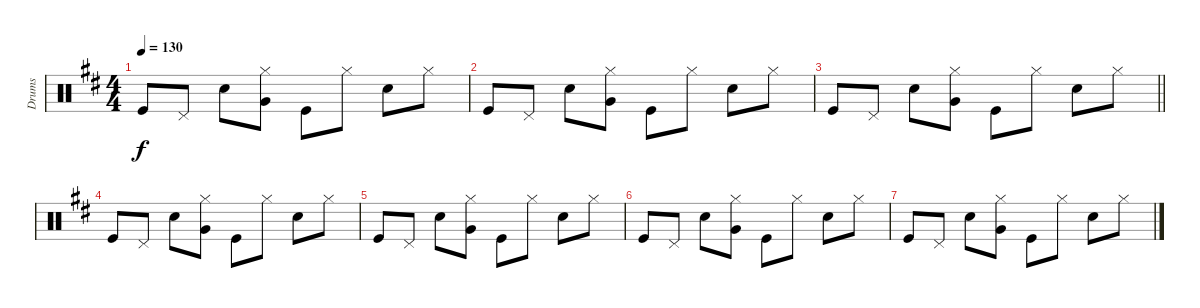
\track ("Drums" "Drums") {instrument percussion}
\staff {score}
\articulation defaults
\ts (4 4)
\tempo 130
\clef neutral
\ks d "Kick (hit)".8{dy f} "Pedal Hi-Hat (hit)".8 "Snare (hit) 2".8
("Hi-Hat (closed)" "Very Low Tom (hit)").8 "Kick (hit)".8 "Hi-Hat (closed)".8 "Snare (hit) 2".8 "Hi-Hat (closed)".8 |
"Kick (hit)".8 "Pedal Hi-Hat (hit)".8 "Snare (hit) 2".8 ("Hi-Hat (closed)" "Very Low Tom (hit)").8 "Kick (hit)".8 "Hi-Hat (closed)".8 "Snare (hit) 2".8 "Hi-Hat (closed)".8 |
\barLineRight lightlight "Kick (hit)".8 "Pedal Hi-Hat (hit)".8 "Snare (hit) 2".8
("Hi-Hat (closed)" "Very Low Tom (hit)").8 "Kick (hit)".8 "Hi-Hat (closed)".8 "Snare (hit) 2".8 "Hi-Hat (closed)".8 |
\section ("" "")
"Kick (hit)".8 "Pedal Hi-Hat (hit)".8 "Snare (hit) 2".8 ("Hi-Hat (closed)" "Very Low Tom (hit)").8 "Kick (hit)".8 "Hi-Hat (closed)".8 "Snare (hit) 2".8 "Hi-Hat (closed)".8 |
"Kick (hit)".8 "Pedal Hi-Hat (hit)".8 "Snare (hit) 2".8 ("Hi-Hat (closed)" "Very Low Tom (hit)").8 "Kick (hit)".8 "Hi-Hat (closed)".8 "Snare (hit) 2".8 "Hi-Hat (closed)".8 |
"Kick (hit)".8 "Pedal Hi-Hat (hit)".8 "Snare (hit) 2".8 ("Hi-Hat (closed)" "Very Low Tom (hit)").8 "Kick (hit)".8 "Hi-Hat (closed)".8 "Snare (hit) 2".8 "Hi-Hat (closed)".8 |
"Kick (hit)".8 "Pedal Hi-Hat (hit)".8 "Snare (hit) 2".8 ("Hi-Hat (closed)" "Very Low Tom (hit)").8 "Kick (hit)".8 "Hi-Hat (closed)".8 "Snare (hit) 2".8 "Hi-Hat (closed)".8
